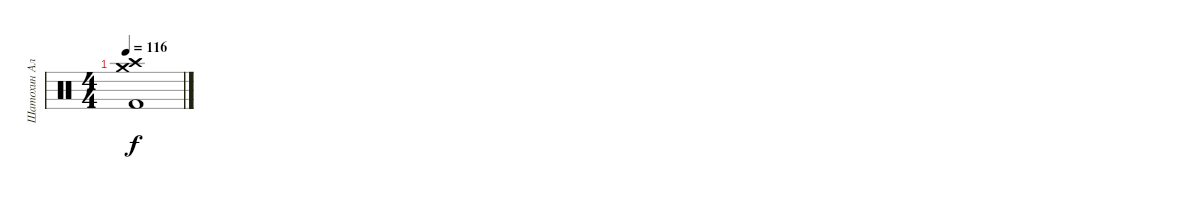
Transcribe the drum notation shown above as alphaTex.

\track ("Шатохин Алексей" "Шатохин Ал") {instrument percussion}
\staff {score}
\articulation defaults
\ts (4 4)
\tempo 116
\clef neutral
\ks c
("Crash high (hit)" "Crash medium (hit)" "Kick (hit) 2").1{dy f}
